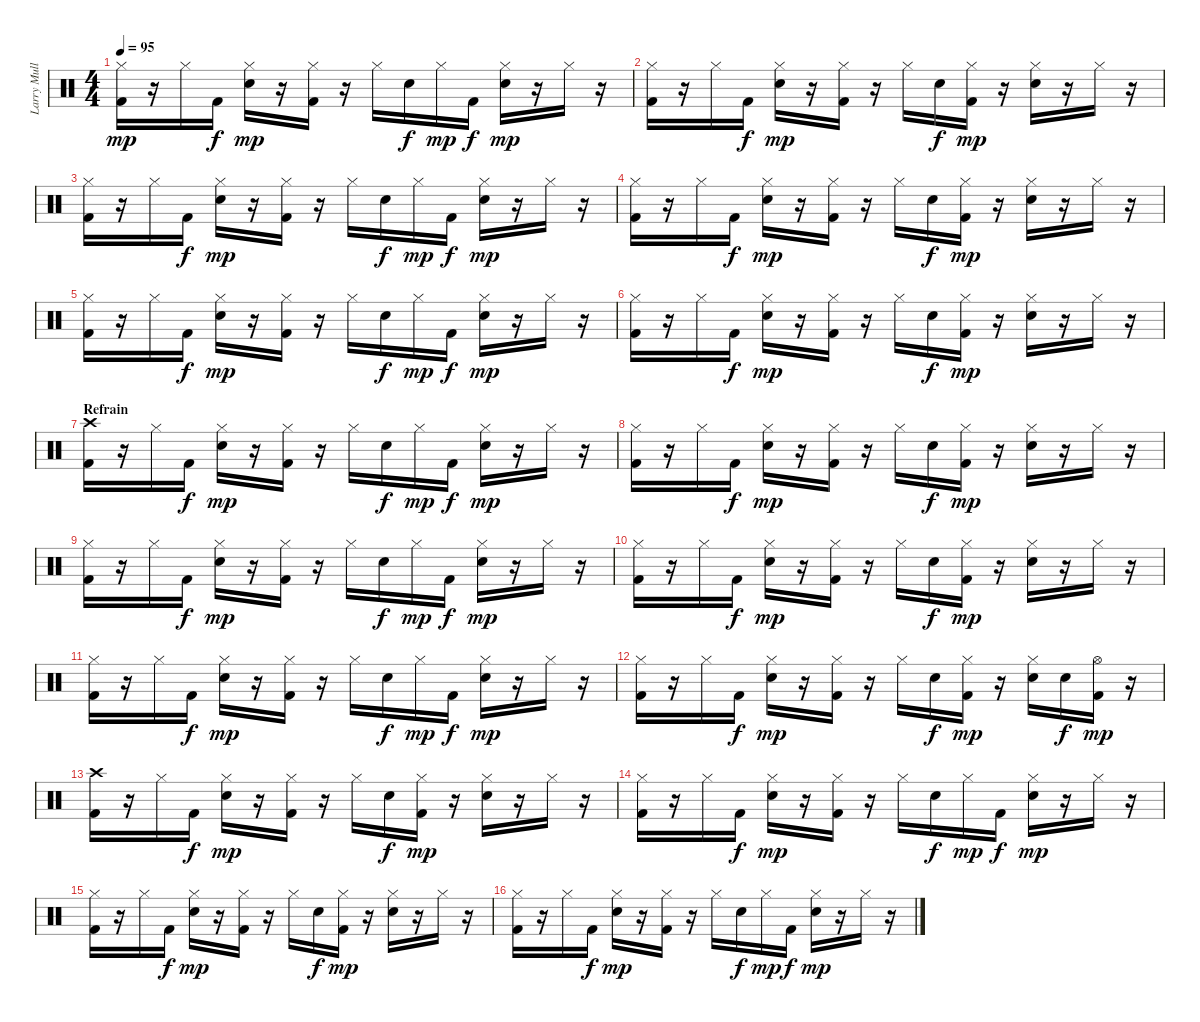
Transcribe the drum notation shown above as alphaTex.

\track ("Larry Mullen Jr" "Larry Mull") {instrument percussion}
\staff {score}
\articulation defaults
\ts (4 4)
\tempo 95
\clef neutral
\ks c
("Hi-Hat (closed)" "Kick (hit) 2").16{dy mp} r.16 "Hi-Hat (closed)".16 "Kick (hit) 2".16{dy f} ("Hi-Hat (closed)" "Snare (hit) 2").16{dy mp} r.16 ("Hi-Hat (closed)" "Kick (hit) 2").16 r.16 "Hi-Hat (closed)".16 "Snare (hit) 2".16{dy f} "Hi-Hat (closed)".16{dy mp} "Kick (hit) 2".16{dy f} ("Hi-Hat (closed)" "Snare (hit) 2").16{dy mp} r.16 "Hi-Hat (closed)".16 r.16 |
("Hi-Hat (closed)" "Kick (hit) 2").16 r.16 "Hi-Hat (closed)".16 "Kick (hit) 2".16{dy f} ("Hi-Hat (closed)" "Snare (hit) 2").16{dy mp} r.16 ("Hi-Hat (closed)" "Kick (hit) 2").16 r.16 "Hi-Hat (closed)".16 "Snare (hit) 2".16{dy f} ("Hi-Hat (closed)" "Kick (hit) 2").16{dy mp} r.16 ("Hi-Hat (closed)" "Snare (hit) 2").16 r.16 "Hi-Hat (closed)".16 r.16 |
("Hi-Hat (closed)" "Kick (hit) 2").16 r.16 "Hi-Hat (closed)".16 "Kick (hit) 2".16{dy f} ("Hi-Hat (closed)" "Snare (hit) 2").16{dy mp} r.16 ("Hi-Hat (closed)" "Kick (hit) 2").16 r.16 "Hi-Hat (closed)".16 "Snare (hit) 2".16{dy f} "Hi-Hat (closed)".16{dy mp} "Kick (hit) 2".16{dy f} ("Hi-Hat (closed)" "Snare (hit) 2").16{dy mp} r.16 "Hi-Hat (closed)".16 r.16 |
("Hi-Hat (closed)" "Kick (hit) 2").16 r.16 "Hi-Hat (closed)".16 "Kick (hit) 2".16{dy f} ("Hi-Hat (closed)" "Snare (hit) 2").16{dy mp} r.16 ("Hi-Hat (closed)" "Kick (hit) 2").16 r.16 "Hi-Hat (closed)".16 "Snare (hit) 2".16{dy f} ("Hi-Hat (closed)" "Kick (hit) 2").16{dy mp} r.16 ("Hi-Hat (closed)" "Snare (hit) 2").16 r.16 "Hi-Hat (closed)".16 r.16 |
("Hi-Hat (closed)" "Kick (hit) 2").16 r.16 "Hi-Hat (closed)".16 "Kick (hit) 2".16{dy f} ("Hi-Hat (closed)" "Snare (hit) 2").16{dy mp} r.16 ("Hi-Hat (closed)" "Kick (hit) 2").16 r.16 "Hi-Hat (closed)".16 "Snare (hit) 2".16{dy f} "Hi-Hat (closed)".16{dy mp} "Kick (hit) 2".16{dy f} ("Hi-Hat (closed)" "Snare (hit) 2").16{dy mp} r.16 "Hi-Hat (closed)".16 r.16 |
("Hi-Hat (closed)" "Kick (hit) 2").16 r.16 "Hi-Hat (closed)".16 "Kick (hit) 2".16{dy f} ("Hi-Hat (closed)" "Snare (hit) 2").16{dy mp} r.16 ("Hi-Hat (closed)" "Kick (hit) 2").16 r.16 "Hi-Hat (closed)".16 "Snare (hit) 2".16{dy f} ("Hi-Hat (closed)" "Kick (hit) 2").16{dy mp} r.16 ("Hi-Hat (closed)" "Snare (hit) 2").16 r.16 "Hi-Hat (closed)".16 r.16 |
\section ("" "Refrain")
("Crash high (hit)" "Kick (hit) 2").16 r.16 "Hi-Hat (closed)".16 "Kick (hit) 2".16{dy f} ("Hi-Hat (closed)" "Snare (hit) 2").16{dy mp} r.16 ("Hi-Hat (closed)" "Kick (hit) 2").16 r.16 "Hi-Hat (closed)".16 "Snare (hit) 2".16{dy f} "Hi-Hat (closed)".16{dy mp} "Kick (hit) 2".16{dy f} ("Hi-Hat (closed)" "Snare (hit) 2").16{dy mp} r.16 "Hi-Hat (closed)".16 r.16 |
("Hi-Hat (closed)" "Kick (hit) 2").16 r.16 "Hi-Hat (closed)".16 "Kick (hit) 2".16{dy f} ("Hi-Hat (closed)" "Snare (hit) 2").16{dy mp} r.16 ("Hi-Hat (closed)" "Kick (hit) 2").16 r.16 "Hi-Hat (closed)".16 "Snare (hit) 2".16{dy f} ("Hi-Hat (closed)" "Kick (hit) 2").16{dy mp} r.16 ("Hi-Hat (closed)" "Snare (hit) 2").16 r.16 "Hi-Hat (closed)".16 r.16 |
("Hi-Hat (closed)" "Kick (hit) 2").16 r.16 "Hi-Hat (closed)".16 "Kick (hit) 2".16{dy f} ("Hi-Hat (closed)" "Snare (hit) 2").16{dy mp} r.16 ("Hi-Hat (closed)" "Kick (hit) 2").16 r.16 "Hi-Hat (closed)".16 "Snare (hit) 2".16{dy f} "Hi-Hat (closed)".16{dy mp} "Kick (hit) 2".16{dy f} ("Hi-Hat (closed)" "Snare (hit) 2").16{dy mp} r.16 "Hi-Hat (closed)".16 r.16 |
("Hi-Hat (closed)" "Kick (hit) 2").16 r.16 "Hi-Hat (closed)".16 "Kick (hit) 2".16{dy f} ("Hi-Hat (closed)" "Snare (hit) 2").16{dy mp} r.16 ("Hi-Hat (closed)" "Kick (hit) 2").16 r.16 "Hi-Hat (closed)".16 "Snare (hit) 2".16{dy f} ("Hi-Hat (closed)" "Kick (hit) 2").16{dy mp} r.16 ("Hi-Hat (closed)" "Snare (hit) 2").16 r.16 "Hi-Hat (closed)".16 r.16 |
("Hi-Hat (closed)" "Kick (hit) 2").16 r.16 "Hi-Hat (closed)".16 "Kick (hit) 2".16{dy f} ("Hi-Hat (closed)" "Snare (hit) 2").16{dy mp} r.16 ("Hi-Hat (closed)" "Kick (hit) 2").16 r.16 "Hi-Hat (closed)".16 "Snare (hit) 2".16{dy f} "Hi-Hat (closed)".16{dy mp} "Kick (hit) 2".16{dy f} ("Hi-Hat (closed)" "Snare (hit) 2").16{dy mp} r.16 "Hi-Hat (closed)".16 r.16 |
("Hi-Hat (closed)" "Kick (hit) 2").16 r.16 "Hi-Hat (closed)".16 "Kick (hit) 2".16{dy f} ("Hi-Hat (closed)" "Snare (hit) 2").16{dy mp} r.16 ("Hi-Hat (closed)" "Kick (hit) 2").16 r.16 "Hi-Hat (closed)".16 "Snare (hit) 2".16{dy f} ("Hi-Hat (closed)" "Kick (hit) 2").16{dy mp} r.16 ("Hi-Hat (closed)" "Snare (hit) 2").16 "Snare (hit) 2".16{dy f} ("Hi-Hat (open)" "Kick (hit) 2").16{dy mp} r.16 |
("Crash high (hit)" "Kick (hit) 2").16 r.16 "Hi-Hat (closed)".16 "Kick (hit) 2".16{dy f} ("Hi-Hat (closed)" "Snare (hit) 2").16{dy mp} r.16 ("Hi-Hat (closed)" "Kick (hit) 2").16 r.16 "Hi-Hat (closed)".16 "Snare (hit) 2".16{dy f} ("Hi-Hat (closed)" "Kick (hit) 2").16{dy mp} r.16 ("Hi-Hat (closed)" "Snare (hit) 2").16 r.16 "Hi-Hat (closed)".16 r.16 |
("Hi-Hat (closed)" "Kick (hit) 2").16 r.16 "Hi-Hat (closed)".16 "Kick (hit) 2".16{dy f} ("Hi-Hat (closed)" "Snare (hit) 2").16{dy mp} r.16 ("Hi-Hat (closed)" "Kick (hit) 2").16 r.16 "Hi-Hat (closed)".16 "Snare (hit) 2".16{dy f} "Hi-Hat (closed)".16{dy mp} "Kick (hit) 2".16{dy f} ("Hi-Hat (closed)" "Snare (hit) 2").16{dy mp} r.16 "Hi-Hat (closed)".16 r.16 |
("Hi-Hat (closed)" "Kick (hit) 2").16 r.16 "Hi-Hat (closed)".16 "Kick (hit) 2".16{dy f} ("Hi-Hat (closed)" "Snare (hit) 2").16{dy mp} r.16 ("Hi-Hat (closed)" "Kick (hit) 2").16 r.16 "Hi-Hat (closed)".16 "Snare (hit) 2".16{dy f} ("Hi-Hat (closed)" "Kick (hit) 2").16{dy mp} r.16 ("Hi-Hat (closed)" "Snare (hit) 2").16 r.16 "Hi-Hat (closed)".16 r.16 |
("Hi-Hat (closed)" "Kick (hit) 2").16 r.16 "Hi-Hat (closed)".16 "Kick (hit) 2".16{dy f} ("Hi-Hat (closed)" "Snare (hit) 2").16{dy mp} r.16 ("Hi-Hat (closed)" "Kick (hit) 2").16 r.16 "Hi-Hat (closed)".16 "Snare (hit) 2".16{dy f} "Hi-Hat (closed)".16{dy mp} "Kick (hit) 2".16{dy f} ("Hi-Hat (closed)" "Snare (hit) 2").16{dy mp} r.16 "Hi-Hat (closed)".16 r.16
